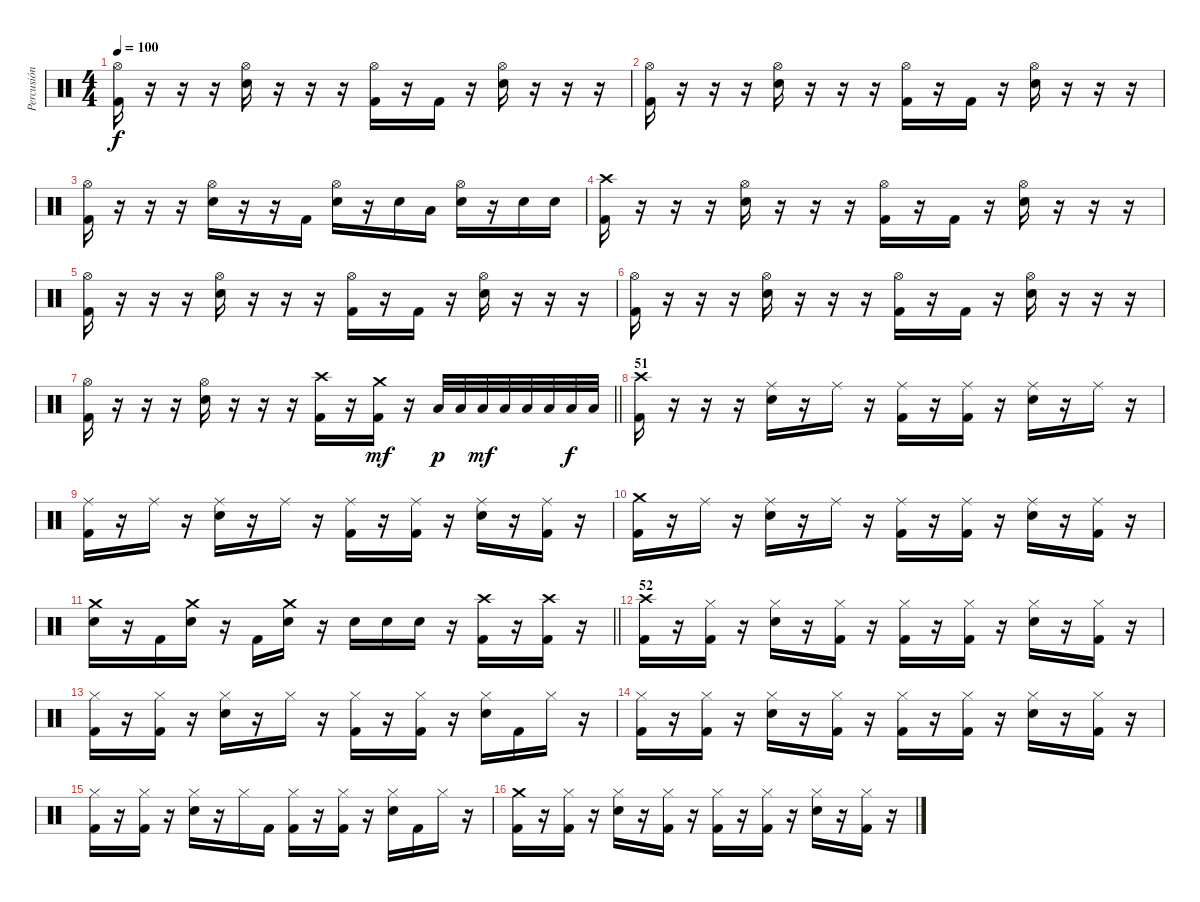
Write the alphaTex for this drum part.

\track ("Percusión" "Percusión") {instrument percussion}
\staff {score}
\articulation defaults
\ts (4 4)
\tempo 100
\clef neutral
\ks c
("Hi-Hat (open)" "Kick (hit) 2").16{dy f} r.16 r.16 r.16 ("Hi-Hat (open)" "Electric Snare (hit)").16 r.16 r.16 r.16 ("Hi-Hat (open)" "Kick (hit) 2").16 r.16 "Kick (hit) 2".16 r.16 ("Hi-Hat (open)" "Electric Snare (hit)").16 r.16 r.16 r.16 |
("Hi-Hat (open)" "Kick (hit) 2").16 r.16 r.16 r.16 ("Hi-Hat (open)" "Electric Snare (hit)").16 r.16 r.16 r.16 ("Hi-Hat (open)" "Kick (hit) 2").16 r.16 "Kick (hit) 2".16 r.16 ("Hi-Hat (open)" "Electric Snare (hit)").16 r.16 r.16 r.16 |
("Hi-Hat (open)" "Kick (hit) 2").16 r.16 r.16 r.16 ("Hi-Hat (open)" "Electric Snare (hit)").16 r.16 r.16 "Kick (hit) 2".16 ("Hi-Hat (open)" "Electric Snare (hit)").16 r.16 "Electric Snare (hit)".16 "Low Tom (hit)".16 ("Hi-Hat (open)" "Electric Snare (hit)").16 r.16 "Electric Snare (hit)".16 "Electric Snare (hit)".16 |
("Crash high (hit)" "Kick (hit) 2").16 r.16 r.16 r.16 ("Hi-Hat (open)" "Electric Snare (hit)").16 r.16 r.16 r.16 ("Hi-Hat (open)" "Kick (hit) 2").16 r.16 "Kick (hit) 2".16 r.16 ("Hi-Hat (open)" "Electric Snare (hit)").16 r.16 r.16 r.16 |
("Hi-Hat (open)" "Kick (hit) 2").16 r.16 r.16 r.16 ("Hi-Hat (open)" "Electric Snare (hit)").16 r.16 r.16 r.16 ("Hi-Hat (open)" "Kick (hit) 2").16 r.16 "Kick (hit) 2".16 r.16 ("Hi-Hat (open)" "Electric Snare (hit)").16 r.16 r.16 r.16 |
("Hi-Hat (open)" "Kick (hit) 2").16 r.16 r.16 r.16 ("Hi-Hat (open)" "Electric Snare (hit)").16 r.16 r.16 r.16 ("Hi-Hat (open)" "Kick (hit) 2").16 r.16 "Kick (hit) 2".16 r.16 ("Hi-Hat (open)" "Electric Snare (hit)").16 r.16 r.16 r.16 |
\barLineRight lightlight
("Hi-Hat (open)" "Kick (hit) 2").16 r.16 r.16 r.16 ("Hi-Hat (open)" "Electric Snare (hit)").16 r.16 r.16 r.16 ("Crash high (hit)" "Kick (hit) 2").16 r.16 ("Crash medium (hit)" "Kick (hit) 2").16{dy mf} r.16 "Low Tom (hit)".32{dy p} "Low Tom (hit)".32 "Low Tom (hit)".32{dy mf} "Low Tom (hit)".32 "Low Tom (hit)".32 "Low Tom (hit)".32 "Low Tom (hit)".32{dy f} "Low Tom (hit)".32 |
\section ("" "51")
("Crash high (hit)" "Kick (hit) 2").16 r.16 r.16 r.16 ("Ride (middle)" "Electric Snare (hit)").16 r.16 "Ride (middle)".16 r.16 ("Ride (middle)" "Kick (hit) 2").16 r.16 ("Ride (middle)" "Kick (hit) 2").16 r.16 ("Ride (middle)" "Electric Snare (hit)").16 r.16 "Ride (middle)".16 r.16 |
("Ride (middle)" "Kick (hit) 2").16 r.16 "Ride (middle)".16 r.16 ("Ride (middle)" "Electric Snare (hit)").16 r.16 "Ride (middle)".16 r.16 ("Ride (middle)" "Kick (hit) 2").16 r.16 ("Ride (middle)" "Kick (hit) 2").16 r.16 ("Ride (middle)" "Electric Snare (hit)").16 r.16 ("Ride (middle)" "Kick (hit) 2").16 r.16 |
("Crash medium (hit)" "Kick (hit) 2").16 r.16 "Ride (middle)".16 r.16 ("Ride (middle)" "Electric Snare (hit)").16 r.16 "Ride (middle)".16 r.16 ("Ride (middle)" "Kick (hit) 2").16 r.16 ("Ride (middle)" "Kick (hit) 2").16 r.16 ("Ride (middle)" "Electric Snare (hit)").16 r.16 ("Ride (middle)" "Kick (hit) 2").16 r.16 |
\barLineRight lightlight
("Crash medium (hit)" "Electric Snare (hit)").16 r.16 "Kick (hit) 2".16 ("Crash medium (hit)" "Electric Snare (hit)").16 r.16 "Kick (hit) 2".16 ("Crash medium (hit)" "Electric Snare (hit)").16 r.16 "Electric Snare (hit)".16 "Electric Snare (hit)".16 "Electric Snare (hit)".16 r.16 ("Crash high (hit)" "Kick (hit) 2").16 r.16 ("Crash high (hit)" "Kick (hit) 2").16 r.16 |
\section ("" "52")
("Crash high (hit)" "Kick (hit) 2").16 r.16 ("Hi-Hat (closed)" "Kick (hit) 2").16 r.16 ("Hi-Hat (closed)" "Electric Snare (hit)").16 r.16 ("Hi-Hat (closed)" "Kick (hit) 2").16 r.16 ("Hi-Hat (closed)" "Kick (hit) 2").16 r.16 ("Hi-Hat (closed)" "Kick (hit) 2").16 r.16 ("Hi-Hat (closed)" "Electric Snare (hit)").16 r.16 ("Hi-Hat (closed)" "Kick (hit) 2").16 r.16 |
("Hi-Hat (closed)" "Kick (hit) 2").16 r.16 ("Hi-Hat (closed)" "Kick (hit) 2").16 r.16 ("Hi-Hat (closed)" "Electric Snare (hit)").16 r.16 "Hi-Hat (closed)".16 r.16 ("Hi-Hat (closed)" "Kick (hit) 2").16 r.16 ("Hi-Hat (closed)" "Kick (hit) 2").16 r.16 ("Hi-Hat (closed)" "Electric Snare (hit)").16 "Kick (hit) 2".16 "Hi-Hat (closed)".16 r.16 |
("Hi-Hat (closed)" "Kick (hit) 2").16 r.16 ("Hi-Hat (closed)" "Kick (hit) 2").16 r.16 ("Hi-Hat (closed)" "Electric Snare (hit)").16 r.16 ("Hi-Hat (closed)" "Kick (hit) 2").16 r.16 ("Hi-Hat (closed)" "Kick (hit) 2").16 r.16 ("Hi-Hat (closed)" "Kick (hit) 2").16 r.16 ("Hi-Hat (closed)" "Electric Snare (hit)").16 r.16 ("Hi-Hat (closed)" "Kick (hit) 2").16 r.16 |
("Hi-Hat (closed)" "Kick (hit) 2").16 r.16 ("Hi-Hat (closed)" "Kick (hit) 2").16 r.16 ("Hi-Hat (closed)" "Electric Snare (hit)").16 r.16 "Hi-Hat (closed)".16 "Kick (hit) 2".16 ("Hi-Hat (closed)" "Kick (hit) 2").16 r.16 ("Hi-Hat (closed)" "Kick (hit) 2").16 r.16 ("Hi-Hat (closed)" "Electric Snare (hit)").16 "Kick (hit) 2".16 "Hi-Hat (closed)".16 r.16 |
("Crash medium (hit)" "Kick (hit) 2").16 r.16 ("Hi-Hat (closed)" "Kick (hit) 2").16 r.16 ("Hi-Hat (closed)" "Electric Snare (hit)").16 r.16 ("Hi-Hat (closed)" "Kick (hit) 2").16 r.16 ("Hi-Hat (closed)" "Kick (hit) 2").16 r.16 ("Hi-Hat (closed)" "Kick (hit) 2").16 r.16 ("Hi-Hat (closed)" "Electric Snare (hit)").16 r.16 ("Hi-Hat (closed)" "Kick (hit) 2").16 r.16
